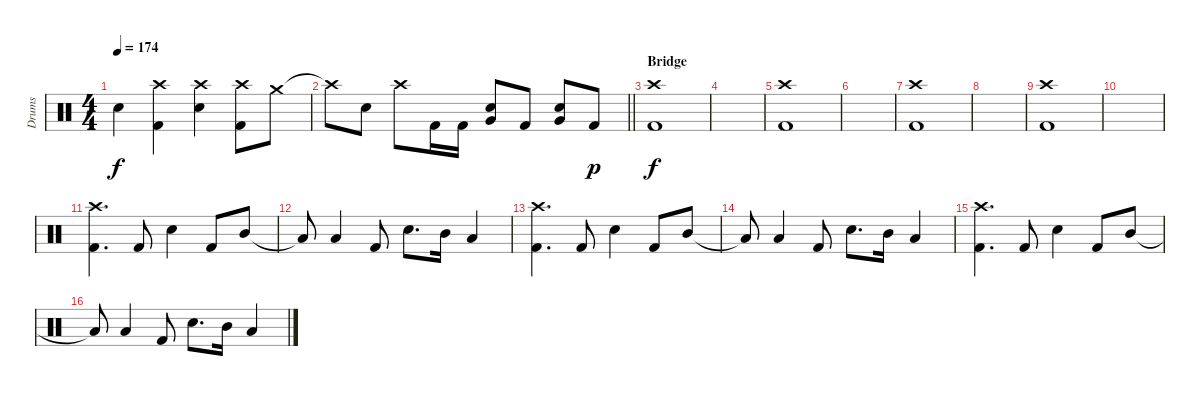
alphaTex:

\track ("Drums" "Drums") {instrument percussion}
\staff {score}
\articulation defaults
\ts (4 4)
\tempo 174
\clef neutral
\ks c "Snare (hit)"{t}.4{dy f}
("Crash high (hit)" "Kick (hit) 2").4 ("Crash high (hit)" "Electric Snare (hit)").4 ("Crash high (hit)" "Kick (hit) 2").8 "Crash medium (hit)".8 |
\barLineRight lightlight "Crash high (hit)"{t}.8 "Electric Snare (hit)".8 "Crash high (hit)".8 "Kick (hit) 2".16 "Kick (hit) 2".16
("Very Low Tom (hit)" "Electric Snare (hit)").8 "Kick (hit) 2".8 ("Very Low Tom (hit)" "Electric Snare (hit)").8 "Kick (hit) 2".8{dy p} |
\section ("" "Bridge")
("Crash high (hit)" "Kick (hit) 2").1{dy f} |
|
("Crash high (hit)" "Kick (hit) 2").1 |
|
("Crash high (hit)" "Kick (hit) 2").1 |
|
("Crash high (hit)" "Kick (hit) 2").1 |
|
("Crash high (hit)" "Kick (hit) 2").4{d} "Kick (hit) 2".8 "Electric Snare (hit)".4 "Kick (hit) 2".8 "Mid Tom (hit)".8 |
"Low Tom (hit)"{t}.8 "Low Tom (hit)".4 "Kick (hit) 2".8 "Electric Snare (hit)".8{d} "Mid Tom (hit)".16 "Low Tom (hit)".4 |
("Crash high (hit)" "Kick (hit) 2").4{d} "Kick (hit) 2".8 "Electric Snare (hit)".4 "Kick (hit) 2".8 "Mid Tom (hit)".8 |
"Low Tom (hit)"{t}.8 "Low Tom (hit)".4 "Kick (hit) 2".8 "Electric Snare (hit)".8{d} "Mid Tom (hit)".16 "Low Tom (hit)".4 |
("Crash high (hit)" "Kick (hit) 2").4{d} "Kick (hit) 2".8 "Electric Snare (hit)".4 "Kick (hit) 2".8 "Mid Tom (hit)".8 |
"Low Tom (hit)"{t}.8 "Low Tom (hit)".4 "Kick (hit) 2".8 "Electric Snare (hit)".8{d} "Mid Tom (hit)".16 "Low Tom (hit)".4
